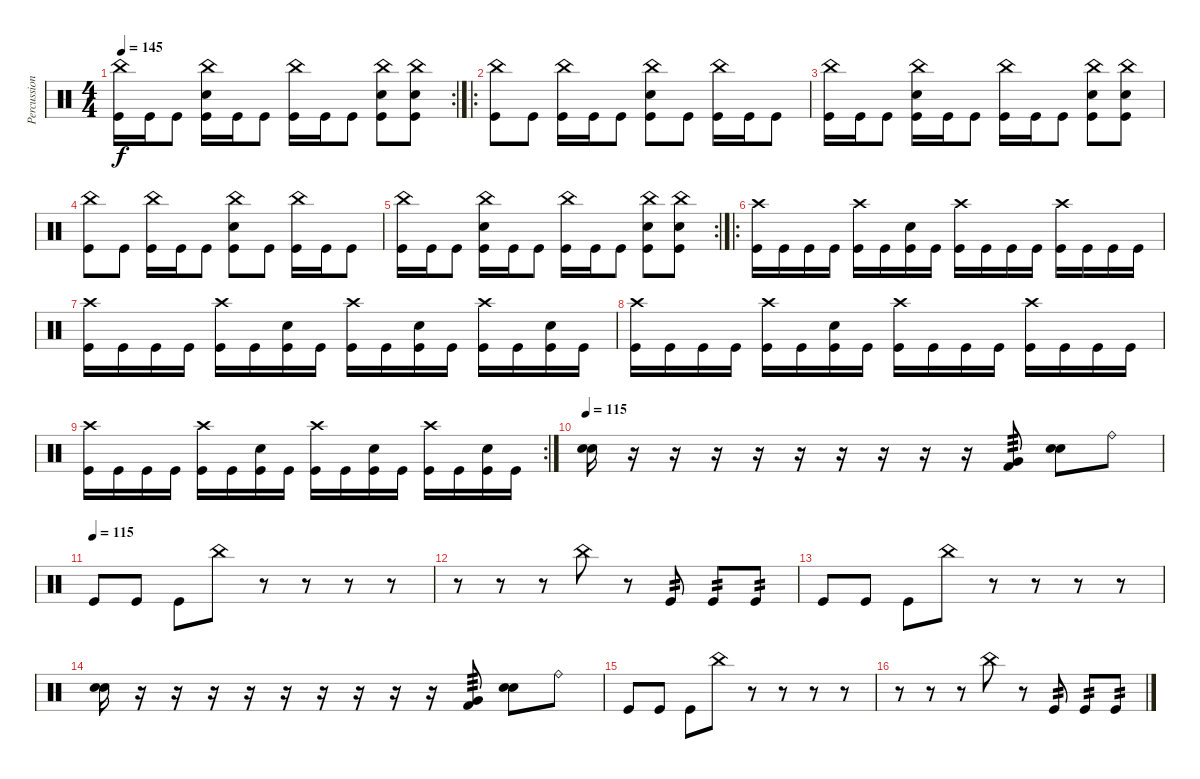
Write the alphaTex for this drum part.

\track ("Percussion" "Percussion") {instrument percussion}
\staff {score}
\articulation defaults
\rc 2
\ts (4 4)
\tempo 145
\clef neutral
\ks c
("China (hit)" "Kick (hit)").16{dy f} "Kick (hit)".16 "Kick (hit)".8 ("China (hit)" "Electric Snare (hit)" "Kick (hit)").16 "Kick (hit)".16 "Kick (hit)".8 ("China (hit)" "Kick (hit)").16 "Kick (hit)".16 "Kick (hit)".8 ("China (hit)" "Electric Snare (hit)" "Kick (hit)").8 ("China (hit)" "Electric Snare (hit)" "Kick (hit)").8 |
\ro
("China (hit)" "Kick (hit)").8 "Kick (hit)".8 ("China (hit)" "Kick (hit)").16 "Kick (hit)".16 "Kick (hit)".8 ("China (hit)" "Electric Snare (hit)" "Kick (hit)").8 "Kick (hit)".8 ("China (hit)" "Kick (hit)").16 "Kick (hit)".16 "Kick (hit)".8 |
("China (hit)" "Kick (hit)").16 "Kick (hit)".16 "Kick (hit)".8 ("China (hit)" "Electric Snare (hit)" "Kick (hit)").16 "Kick (hit)".16 "Kick (hit)".8 ("China (hit)" "Kick (hit)").16 "Kick (hit)".16 "Kick (hit)".8 ("China (hit)" "Electric Snare (hit)" "Kick (hit)").8 ("China (hit)" "Electric Snare (hit)" "Kick (hit)").8 |
("China (hit)" "Kick (hit)").8 "Kick (hit)".8 ("China (hit)" "Kick (hit)").16 "Kick (hit)".16 "Kick (hit)".8 ("China (hit)" "Electric Snare (hit)" "Kick (hit)").8 "Kick (hit)".8 ("China (hit)" "Kick (hit)").16 "Kick (hit)".16 "Kick (hit)".8 |
\rc 2
("China (hit)" "Kick (hit)").16 "Kick (hit)".16 "Kick (hit)".8 ("China (hit)" "Electric Snare (hit)" "Kick (hit)").16 "Kick (hit)".16 "Kick (hit)".8 ("China (hit)" "Kick (hit)").16 "Kick (hit)".16 "Kick (hit)".8 ("China (hit)" "Electric Snare (hit)" "Kick (hit)").8 ("China (hit)" "Electric Snare (hit)" "Kick (hit)").8 |
\ro
("Crash high (hit)" "Kick (hit)").16 "Kick (hit)".16 "Kick (hit)".16 "Kick (hit)".16 ("Crash high (hit)" "Kick (hit)").16 "Kick (hit)".16 ("Electric Snare (hit)" "Kick (hit)").16 "Kick (hit)".16 ("Crash high (hit)" "Kick (hit)").16 "Kick (hit)".16 "Kick (hit)".16 "Kick (hit)".16 ("Crash high (hit)" "Kick (hit)").16 "Kick (hit)".16 "Kick (hit)".16 "Kick (hit)".16 |
("Crash high (hit)" "Kick (hit)").16 "Kick (hit)".16 "Kick (hit)".16 "Kick (hit)".16 ("Crash high (hit)" "Kick (hit)").16 "Kick (hit)".16 ("Electric Snare (hit)" "Kick (hit)").16 "Kick (hit)".16 ("Crash high (hit)" "Kick (hit)").16 "Kick (hit)".16 ("Electric Snare (hit)" "Kick (hit)").16 "Kick (hit)".16 ("Crash high (hit)" "Kick (hit)").16 "Kick (hit)".16 ("Electric Snare (hit)" "Kick (hit)").16 "Kick (hit)".16 |
("Crash high (hit)" "Kick (hit)").16 "Kick (hit)".16 "Kick (hit)".16 "Kick (hit)".16 ("Crash high (hit)" "Kick (hit)").16 "Kick (hit)".16 ("Electric Snare (hit)" "Kick (hit)").16 "Kick (hit)".16 ("Crash high (hit)" "Kick (hit)").16 "Kick (hit)".16 "Kick (hit)".16 "Kick (hit)".16 ("Crash high (hit)" "Kick (hit)").16 "Kick (hit)".16 "Kick (hit)".16 "Kick (hit)".16 |
\rc 2
("Crash high (hit)" "Kick (hit)").16 "Kick (hit)".16 "Kick (hit)".16 "Kick (hit)".16 ("Crash high (hit)" "Kick (hit)").16 "Kick (hit)".16 ("Electric Snare (hit)" "Kick (hit)").16 "Kick (hit)".16 ("Crash high (hit)" "Kick (hit)").16 "Kick (hit)".16 ("Electric Snare (hit)" "Kick (hit)").16 "Kick (hit)".16 ("Crash high (hit)" "Kick (hit)").16 "Kick (hit)".16 ("Electric Snare (hit)" "Kick (hit)").16 "Kick (hit)".16 |
\tempo 115
("Electric Snare (hit)" "Electric Snare (hit)").16 r.16 r.16 r.16 r.16 r.16 r.16 r.16 r.16 r.16 ("Very Low Tom (hit)" "Kick (hit) 2").8{tp 3} ("Electric Snare (hit)" "Electric Snare (hit)").8 "Ride (bell)".8 |
\tempo (115)
"Kick (hit)".8 "Kick (hit)".8 "Kick (hit)".8 "China (hit)".8 r.8 r.8 r.8 r.8 |
r.8 r.8 r.8 "China (hit)".8 r.8 "Kick (hit)".8{tp 2} "Kick (hit)".8{tp 2} "Kick (hit)".8{tp 2} |
"Kick (hit)".8 "Kick (hit)".8 "Kick (hit)".8 "China (hit)".8 r.8 r.8 r.8 r.8 |
("Electric Snare (hit)" "Electric Snare (hit)").16 r.16 r.16 r.16 r.16 r.16 r.16 r.16 r.16 r.16 ("Very Low Tom (hit)" "Kick (hit) 2").8{tp 3} ("Electric Snare (hit)" "Electric Snare (hit)").8 "Ride (bell)".8 |
"Kick (hit)".8 "Kick (hit)".8 "Kick (hit)".8 "China (hit)".8 r.8 r.8 r.8 r.8 |
r.8 r.8 r.8 "China (hit)".8 r.8 "Kick (hit)".8{tp 2} "Kick (hit)".8{tp 2} "Kick (hit)".8{tp 2}
